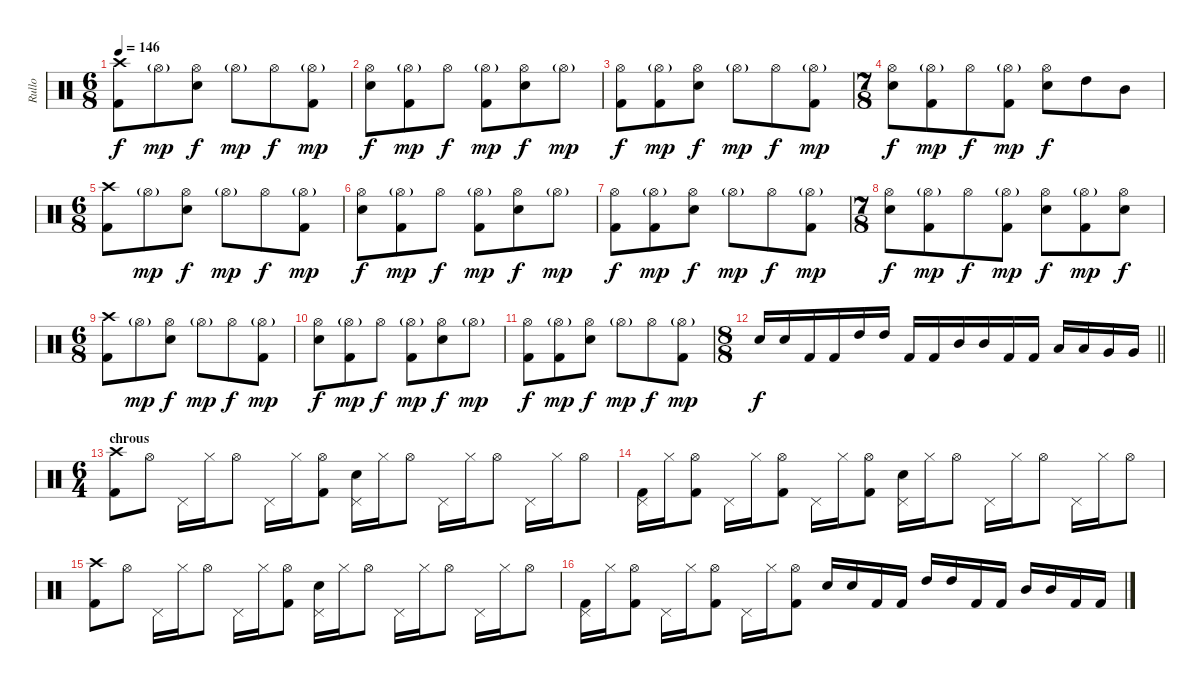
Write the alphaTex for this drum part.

\track ("Rullo" "Rullo") {instrument percussion}
\staff {score}
\articulation defaults
\ts (6 8)
\tempo 146
\clef neutral
\ks c
("Crash high (hit)" "Kick (hit) 2").8{dy f} "Hi-Hat (open)"{g}.8{dy mp} ("Hi-Hat (open)" "Electric Snare (hit)").8{dy f} "Hi-Hat (open)"{g}.8{dy mp} "Hi-Hat (open)".8{dy f} ("Hi-Hat (open)"{g} "Kick (hit) 2").8{dy mp} |
("Hi-Hat (open)" "Electric Snare (hit)").8{dy f} ("Hi-Hat (open)"{g} "Kick (hit) 2").8{dy mp} "Hi-Hat (open)".8{dy f} ("Hi-Hat (open)"{g} "Kick (hit) 2").8{dy mp} ("Hi-Hat (open)" "Electric Snare (hit)").8{dy f} "Hi-Hat (open)"{g}.8{dy mp} |
("Hi-Hat (open)" "Kick (hit) 2").8{dy f} ("Hi-Hat (open)"{g} "Kick (hit) 2").8{dy mp} ("Hi-Hat (open)" "Electric Snare (hit)").8{dy f} "Hi-Hat (open)"{g}.8{dy mp} "Hi-Hat (open)".8{dy f} ("Hi-Hat (open)"{g} "Kick (hit) 2").8{dy mp} |
\ts (7 8)
("Hi-Hat (open)" "Electric Snare (hit)").8{dy f} ("Hi-Hat (open)"{g} "Kick (hit) 2").8{dy mp} "Hi-Hat (open)".8{dy f} ("Hi-Hat (open)"{g} "Kick (hit) 2").8{dy mp} ("Hi-Hat (open)" "Electric Snare (hit)").8{dy f} "High Tom (hit)".8 "Mid Tom (hit)".8 |
\ts (6 8)
("Crash high (hit)" "Kick (hit) 2").8 "Hi-Hat (open)"{g}.8{dy mp} ("Hi-Hat (open)" "Electric Snare (hit)").8{dy f} "Hi-Hat (open)"{g}.8{dy mp} "Hi-Hat (open)".8{dy f} ("Hi-Hat (open)"{g} "Kick (hit) 2").8{dy mp} |
("Hi-Hat (open)" "Electric Snare (hit)").8{dy f} ("Hi-Hat (open)"{g} "Kick (hit) 2").8{dy mp} "Hi-Hat (open)".8{dy f} ("Hi-Hat (open)"{g} "Kick (hit) 2").8{dy mp} ("Hi-Hat (open)" "Electric Snare (hit)").8{dy f} "Hi-Hat (open)"{g}.8{dy mp} |
("Hi-Hat (open)" "Kick (hit) 2").8{dy f} ("Hi-Hat (open)"{g} "Kick (hit) 2").8{dy mp} ("Hi-Hat (open)" "Electric Snare (hit)").8{dy f} "Hi-Hat (open)"{g}.8{dy mp} "Hi-Hat (open)".8{dy f} ("Hi-Hat (open)"{g} "Kick (hit) 2").8{dy mp} |
\ts (7 8)
("Hi-Hat (open)" "Electric Snare (hit)").8{dy f} ("Hi-Hat (open)"{g} "Kick (hit) 2").8{dy mp} "Hi-Hat (open)".8{dy f} ("Hi-Hat (open)"{g} "Kick (hit) 2").8{dy mp} ("Hi-Hat (open)" "Electric Snare (hit)").8{dy f} ("Hi-Hat (open)"{g} "Kick (hit) 2").8{dy mp} ("Hi-Hat (open)" "Electric Snare (hit)").8{dy f} |
\ts (6 8)
("Crash high (hit)" "Kick (hit) 2").8 "Hi-Hat (open)"{g}.8{dy mp} ("Hi-Hat (open)" "Electric Snare (hit)").8{dy f} "Hi-Hat (open)"{g}.8{dy mp} "Hi-Hat (open)".8{dy f} ("Hi-Hat (open)"{g} "Kick (hit) 2").8{dy mp} |
("Hi-Hat (open)" "Electric Snare (hit)").8{dy f} ("Hi-Hat (open)"{g} "Kick (hit) 2").8{dy mp} "Hi-Hat (open)".8{dy f} ("Hi-Hat (open)"{g} "Kick (hit) 2").8{dy mp} ("Hi-Hat (open)" "Electric Snare (hit)").8{dy f} "Hi-Hat (open)"{g}.8{dy mp} |
("Hi-Hat (open)" "Kick (hit) 2").8{dy f} ("Hi-Hat (open)"{g} "Kick (hit) 2").8{dy mp} ("Hi-Hat (open)" "Electric Snare (hit)").8{dy f} "Hi-Hat (open)"{g}.8{dy mp} "Hi-Hat (open)".8{dy f} ("Hi-Hat (open)"{g} "Kick (hit) 2").8{dy mp} |
\ts (8 8)
\barLineRight lightlight "Electric Snare (hit)".16{dy f} "Electric Snare (hit)".16 "Kick (hit) 2".16 "Kick (hit) 2".16 "High Tom (hit)".16 "High Tom (hit)".16 "Kick (hit) 2".16 "Kick (hit) 2".16 "Mid Tom (hit)".16 "Mid Tom (hit)".16 "Kick (hit) 2".16 "Kick (hit) 2".16 "Low Tom (hit)".16 "Low Tom (hit)".16 "Very Low Tom (hit)".16 "Very Low Tom (hit)".16
|
\ts (6 4)
\section ("" "chrous")
("Crash high (hit)" "Kick (hit) 2").8 "Hi-Hat (open)".8 "Pedal Hi-Hat (hit)".16 "Hi-Hat (closed)".16 "Hi-Hat (open)".8 "Pedal Hi-Hat (hit)".16 "Hi-Hat (closed)".16 ("Hi-Hat (open)" "Kick (hit) 2").8 ("Pedal Hi-Hat (hit)" "Electric Snare (hit)").16 "Hi-Hat (closed)".16 "Hi-Hat (open)".8 "Pedal Hi-Hat (hit)".16 "Hi-Hat (closed)".16 "Hi-Hat (open)".8 "Pedal Hi-Hat (hit)".16 "Hi-Hat (closed)".16 "Hi-Hat (open)".8 |
("Pedal Hi-Hat (hit)" "Kick (hit) 2").16 "Hi-Hat (closed)".16 ("Hi-Hat (open)" "Kick (hit) 2").8 "Pedal Hi-Hat (hit)".16 "Hi-Hat (closed)".16 ("Hi-Hat (open)" "Kick (hit) 2").8 "Pedal Hi-Hat (hit)".16 "Hi-Hat (closed)".16 ("Hi-Hat (open)" "Kick (hit) 2").8 ("Pedal Hi-Hat (hit)" "Electric Snare (hit)").16 "Hi-Hat (closed)".16 "Hi-Hat (open)".8 "Pedal Hi-Hat (hit)".16 "Hi-Hat (closed)".16 "Hi-Hat (open)".8 "Pedal Hi-Hat (hit)".16 "Hi-Hat (closed)".16 "Hi-Hat (open)".8 |
("Crash high (hit)" "Kick (hit) 2").8 "Hi-Hat (open)".8 "Pedal Hi-Hat (hit)".16 "Hi-Hat (closed)".16 "Hi-Hat (open)".8 "Pedal Hi-Hat (hit)".16 "Hi-Hat (closed)".16 ("Hi-Hat (open)" "Kick (hit) 2").8 ("Pedal Hi-Hat (hit)" "Electric Snare (hit)").16 "Hi-Hat (closed)".16 "Hi-Hat (open)".8 "Pedal Hi-Hat (hit)".16 "Hi-Hat (closed)".16 "Hi-Hat (open)".8 "Pedal Hi-Hat (hit)".16 "Hi-Hat (closed)".16 "Hi-Hat (open)".8 |
("Pedal Hi-Hat (hit)" "Kick (hit) 2").16 "Hi-Hat (closed)".16 ("Hi-Hat (open)" "Kick (hit) 2").8 "Pedal Hi-Hat (hit)".16 "Hi-Hat (closed)".16 ("Hi-Hat (open)" "Kick (hit) 2").8 "Pedal Hi-Hat (hit)".16 "Hi-Hat (closed)".16 ("Hi-Hat (open)" "Kick (hit) 2").8 "Electric Snare (hit)".16 "Electric Snare (hit)".16 "Kick (hit) 2".16 "Kick (hit) 2".16 "High Tom (hit)".16 "High Tom (hit)".16 "Kick (hit) 2".16 "Kick (hit) 2".16 "Mid Tom (hit)".16 "Mid Tom (hit)".16 "Kick (hit) 2".16 "Kick (hit) 2".16
